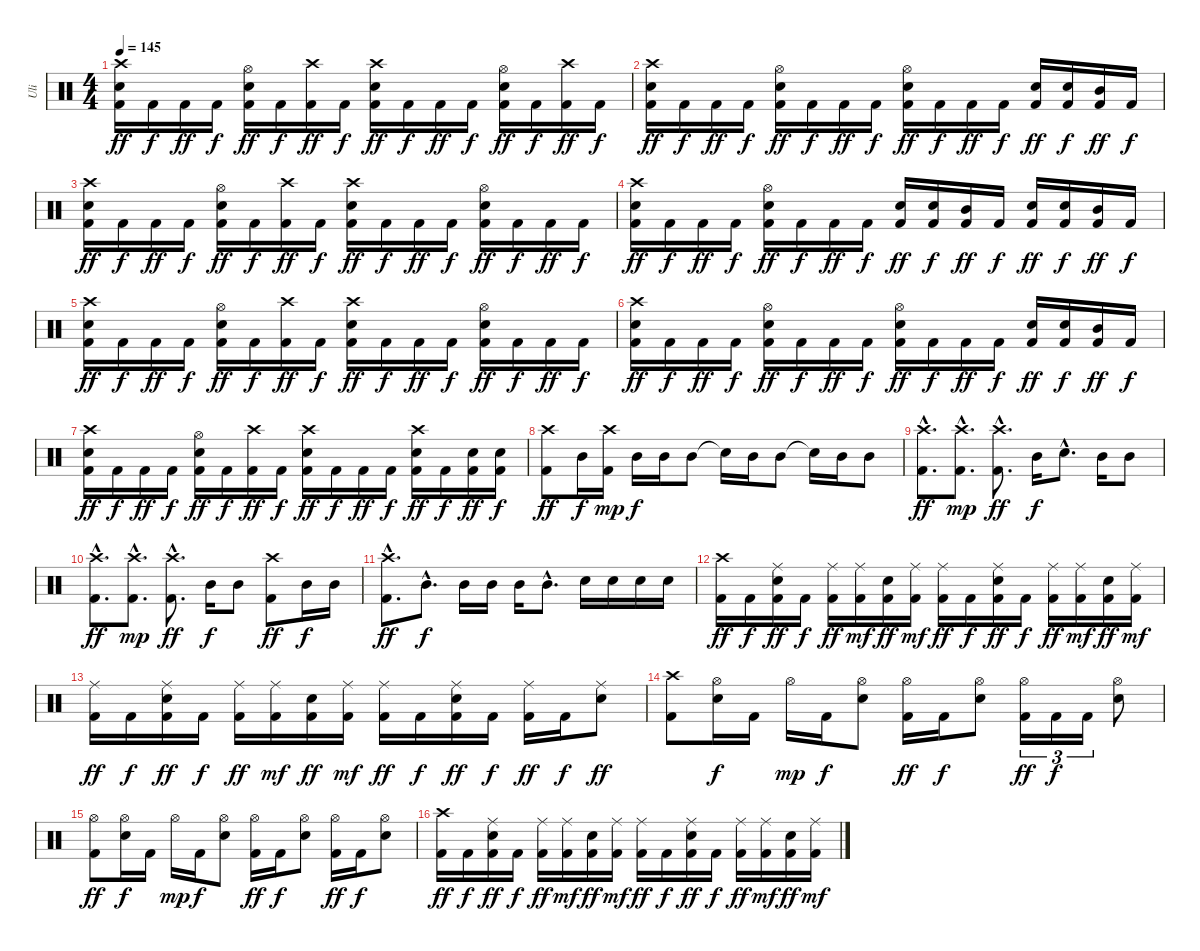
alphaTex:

\track ("Uli" "Uli") {instrument percussion}
\staff {score}
\articulation defaults
\ts (4 4)
\tempo 145
\clef neutral
\ks c
("Crash high (hit)" "Electric Snare (hit)" "Kick (hit) 2").16{dy ff} "Kick (hit) 2".16{dy f} "Kick (hit) 2".16{dy ff} "Kick (hit) 2".16{dy f} ("Hi-Hat (open)" "Electric Snare (hit)" "Kick (hit) 2").16{dy ff} "Kick (hit) 2".16{dy f} ("Crash high (hit)" "Kick (hit) 2").16{dy ff} "Kick (hit) 2".16{dy f} ("Crash high (hit)" "Electric Snare (hit)" "Kick (hit) 2").16{dy ff} "Kick (hit) 2".16{dy f} "Kick (hit) 2".16{dy ff} "Kick (hit) 2".16{dy f} ("Hi-Hat (open)" "Electric Snare (hit)" "Kick (hit) 2").16{dy ff} "Kick (hit) 2".16{dy f} ("Crash high (hit)" "Kick (hit) 2").16{dy ff} "Kick (hit) 2".16{dy f} |
("Crash high (hit)" "Electric Snare (hit)" "Kick (hit) 2").16{dy ff} "Kick (hit) 2".16{dy f} "Kick (hit) 2".16{dy ff} "Kick (hit) 2".16{dy f} ("Hi-Hat (open)" "Electric Snare (hit)" "Kick (hit) 2").16{dy ff} "Kick (hit) 2".16{dy f} "Kick (hit) 2".16{dy ff} "Kick (hit) 2".16{dy f} ("Hi-Hat (open)" "Electric Snare (hit)" "Kick (hit) 2").16{dy ff} "Kick (hit) 2".16{dy f} "Kick (hit) 2".16{dy ff} "Kick (hit) 2".16{dy f} ("Electric Snare (hit)" "Kick (hit) 2").16{dy ff} ("Electric Snare (hit)" "Kick (hit) 2").16{dy f} ("Mid Tom (hit)" "Kick (hit) 2").16{dy ff} "Kick (hit) 2".16{dy f} |
("Crash high (hit)" "Electric Snare (hit)" "Kick (hit) 2").16{dy ff} "Kick (hit) 2".16{dy f} "Kick (hit) 2".16{dy ff} "Kick (hit) 2".16{dy f} ("Hi-Hat (open)" "Electric Snare (hit)" "Kick (hit) 2").16{dy ff} "Kick (hit) 2".16{dy f} ("Crash high (hit)" "Kick (hit) 2").16{dy ff} "Kick (hit) 2".16{dy f} ("Crash high (hit)" "Electric Snare (hit)" "Kick (hit) 2").16{dy ff} "Kick (hit) 2".16{dy f} "Kick (hit) 2".16{dy ff} "Kick (hit) 2".16{dy f} ("Hi-Hat (open)" "Electric Snare (hit)" "Kick (hit) 2").16{dy ff} "Kick (hit) 2".16{dy f} "Kick (hit) 2".16{dy ff} "Kick (hit) 2".16{dy f} |
("Crash high (hit)" "Electric Snare (hit)" "Kick (hit) 2").16{dy ff} "Kick (hit) 2".16{dy f} "Kick (hit) 2".16{dy ff} "Kick (hit) 2".16{dy f} ("Hi-Hat (open)" "Electric Snare (hit)" "Kick (hit) 2").16{dy ff} "Kick (hit) 2".16{dy f} "Kick (hit) 2".16{dy ff} "Kick (hit) 2".16{dy f} ("Electric Snare (hit)" "Kick (hit) 2").16{dy ff} ("Electric Snare (hit)" "Kick (hit) 2").16{dy f} ("Mid Tom (hit)" "Kick (hit) 2").16{dy ff} "Kick (hit) 2".16{dy f} ("Electric Snare (hit)" "Kick (hit) 2").16{dy ff} ("Electric Snare (hit)" "Kick (hit) 2").16{dy f} ("Mid Tom (hit)" "Kick (hit) 2").16{dy ff} "Kick (hit) 2".16{dy f} |
("Crash high (hit)" "Electric Snare (hit)" "Kick (hit) 2").16{dy ff} "Kick (hit) 2".16{dy f} "Kick (hit) 2".16{dy ff} "Kick (hit) 2".16{dy f} ("Hi-Hat (open)" "Electric Snare (hit)" "Kick (hit) 2").16{dy ff} "Kick (hit) 2".16{dy f} ("Crash high (hit)" "Kick (hit) 2").16{dy ff} "Kick (hit) 2".16{dy f} ("Crash high (hit)" "Electric Snare (hit)" "Kick (hit) 2").16{dy ff} "Kick (hit) 2".16{dy f} "Kick (hit) 2".16{dy ff} "Kick (hit) 2".16{dy f} ("Hi-Hat (open)" "Electric Snare (hit)" "Kick (hit) 2").16{dy ff} "Kick (hit) 2".16{dy f} "Kick (hit) 2".16{dy ff} "Kick (hit) 2".16{dy f} |
("Crash high (hit)" "Electric Snare (hit)" "Kick (hit) 2").16{dy ff} "Kick (hit) 2".16{dy f} "Kick (hit) 2".16{dy ff} "Kick (hit) 2".16{dy f} ("Hi-Hat (open)" "Electric Snare (hit)" "Kick (hit) 2").16{dy ff} "Kick (hit) 2".16{dy f} "Kick (hit) 2".16{dy ff} "Kick (hit) 2".16{dy f} ("Hi-Hat (open)" "Electric Snare (hit)" "Kick (hit) 2").16{dy ff} "Kick (hit) 2".16{dy f} "Kick (hit) 2".16{dy ff} "Kick (hit) 2".16{dy f} ("Electric Snare (hit)" "Kick (hit) 2").16{dy ff} ("Electric Snare (hit)" "Kick (hit) 2").16{dy f} ("Mid Tom (hit)" "Kick (hit) 2").16{dy ff} "Kick (hit) 2".16{dy f} |
("Crash high (hit)" "Electric Snare (hit)" "Kick (hit) 2").16{dy ff} "Kick (hit) 2".16{dy f} "Kick (hit) 2".16{dy ff} "Kick (hit) 2".16{dy f} ("Hi-Hat (open)" "Electric Snare (hit)" "Kick (hit) 2").16{dy ff} "Kick (hit) 2".16{dy f} ("Crash high (hit)" "Kick (hit) 2").16{dy ff} "Kick (hit) 2".16{dy f} ("Crash high (hit)" "Electric Snare (hit)" "Kick (hit) 2").16{dy ff} "Kick (hit) 2".16{dy f} "Kick (hit) 2".16{dy ff} "Kick (hit) 2".16{dy f} ("Crash high (hit)" "Electric Snare (hit)" "Kick (hit) 2").16{dy ff} "Kick (hit) 2".16{dy f} ("Electric Snare (hit)" "Kick (hit) 2").16{dy ff} ("Electric Snare (hit)" "Kick (hit) 2").16{dy f} |
("Crash high (hit)" "Kick (hit) 2").8{dy ff} "Mid Tom (hit)".16{dy f} ("Crash high (hit)" "Kick (hit) 2").16{dy mp} "Mid Tom (hit)".16{dy f} "Mid Tom (hit)".16 "Mid Tom (hit)".8 "Snare (hit)"{t}.16 "Mid Tom (hit)".16 "Mid Tom (hit)".8 "Snare (hit)"{t}.16 "Mid Tom (hit)".16 "Mid Tom (hit)".8 |
("Crash high (hit)"{hac} "Kick (hit) 2"{hac}).8{d dy ff} ("Crash high (hit)"{hac} "Kick (hit) 2"{hac}).8{d dy mp} ("Crash high (hit)"{hac} "Kick (hit) 2"{hac}).8{d dy ff} "Mid Tom (hit)".16{dy f} "Electric Snare (hit)"{hac}.8{d} "Mid Tom (hit)".16 "Mid Tom (hit)".8 |
("Crash high (hit)"{hac} "Kick (hit) 2"{hac}).8{d dy ff} ("Crash high (hit)"{hac} "Kick (hit) 2"{hac}).8{d dy mp} ("Crash high (hit)"{hac} "Kick (hit) 2"{hac}).8{d dy ff} "Mid Tom (hit)".16{dy f} "Mid Tom (hit)".8 ("Crash high (hit)" "Kick (hit) 2").8{dy ff} "Mid Tom (hit)".16{dy f} "Mid Tom (hit)".16 |
("Crash high (hit)"{hac} "Kick (hit) 2"{hac}).8{d dy ff} "Mid Tom (hit)"{hac}.8{d dy f} "Mid Tom (hit)".16 "Mid Tom (hit)".16 "Mid Tom (hit)".16 "Mid Tom (hit)"{hac}.8{d} "Electric Snare (hit)".16 "Electric Snare (hit)".16 "Electric Snare (hit)".16 "Electric Snare (hit)".16 |
("Crash high (hit)" "Kick (hit) 2").16{dy ff} "Kick (hit) 2".16{dy f} ("Ride (middle)" "Electric Snare (hit)" "Kick (hit) 2").16{dy ff} "Kick (hit) 2".16{dy f} ("Ride (middle)" "Kick (hit) 2").16{dy ff} ("Ride (middle)" "Kick (hit) 2").16{dy mf} ("Electric Snare (hit)" "Kick (hit) 2").16{dy ff} ("Ride (middle)" "Kick (hit) 2").16{dy mf} ("Ride (middle)" "Kick (hit) 2").16{dy ff} "Kick (hit) 2".16{dy f} ("Ride (middle)" "Electric Snare (hit)" "Kick (hit) 2").16{dy ff} "Kick (hit) 2".16{dy f} ("Ride (middle)" "Kick (hit) 2").16{dy ff} ("Ride (middle)" "Kick (hit) 2").16{dy mf} ("Electric Snare (hit)" "Kick (hit) 2").16{dy ff} ("Ride (middle)" "Kick (hit) 2").16{dy mf} |
("Ride (middle)" "Kick (hit) 2").16{dy ff} "Kick (hit) 2".16{dy f} ("Ride (middle)" "Electric Snare (hit)" "Kick (hit) 2").16{dy ff} "Kick (hit) 2".16{dy f} ("Ride (middle)" "Kick (hit) 2").16{dy ff} ("Ride (middle)" "Kick (hit) 2").16{dy mf} ("Electric Snare (hit)" "Kick (hit) 2").16{dy ff} ("Ride (middle)" "Kick (hit) 2").16{dy mf} ("Ride (middle)" "Kick (hit) 2").16{dy ff} "Kick (hit) 2".16{dy f} ("Ride (middle)" "Electric Snare (hit)" "Kick (hit) 2").16{dy ff} "Kick (hit) 2".16{dy f} ("Ride (middle)" "Kick (hit) 2").16{dy ff} "Kick (hit) 2".16{dy f} ("Ride (middle)" "Electric Snare (hit)").8{dy ff} |
("Crash high (hit)" "Kick (hit) 2").8 ("Hi-Hat (open)" "Electric Snare (hit)").16{dy f} "Kick (hit) 2".16 "Hi-Hat (open)".16{dy mp} "Kick (hit) 2".16{dy f} ("Hi-Hat (open)" "Electric Snare (hit)").8 ("Hi-Hat (open)" "Kick (hit) 2").16{dy ff} "Kick (hit) 2".16{dy f} ("Hi-Hat (open)" "Electric Snare (hit)").8 ("Hi-Hat (open)" "Kick (hit) 2").16{tu (3 2) dy ff} "Kick (hit) 2".16{tu (3 2) dy f} "Kick (hit) 2".16{tu (3 2)} ("Hi-Hat (open)" "Electric Snare (hit)").8 |
("Hi-Hat (open)" "Kick (hit) 2").8{dy ff} ("Hi-Hat (open)" "Electric Snare (hit)").16{dy f} "Kick (hit) 2".16 "Hi-Hat (open)".16{dy mp} "Kick (hit) 2".16{dy f} ("Hi-Hat (open)" "Electric Snare (hit)").8 ("Hi-Hat (open)" "Kick (hit) 2").16{dy ff} "Kick (hit) 2".16{dy f} ("Hi-Hat (open)" "Electric Snare (hit)").8 ("Hi-Hat (open)" "Kick (hit) 2").16{dy ff} "Kick (hit) 2".16{dy f} ("Hi-Hat (open)" "Electric Snare (hit)").8 |
("Crash high (hit)" "Kick (hit) 2").16{dy ff} "Kick (hit) 2".16{dy f} ("Ride (middle)" "Electric Snare (hit)" "Kick (hit) 2").16{dy ff} "Kick (hit) 2".16{dy f} ("Ride (middle)" "Kick (hit) 2").16{dy ff} ("Ride (middle)" "Kick (hit) 2").16{dy mf} ("Electric Snare (hit)" "Kick (hit) 2").16{dy ff} ("Ride (middle)" "Kick (hit) 2").16{dy mf} ("Ride (middle)" "Kick (hit) 2").16{dy ff} "Kick (hit) 2".16{dy f} ("Ride (middle)" "Electric Snare (hit)" "Kick (hit) 2").16{dy ff} "Kick (hit) 2".16{dy f} ("Ride (middle)" "Kick (hit) 2").16{dy ff} ("Ride (middle)" "Kick (hit) 2").16{dy mf} ("Electric Snare (hit)" "Kick (hit) 2").16{dy ff} ("Ride (middle)" "Kick (hit) 2").16{dy mf}
